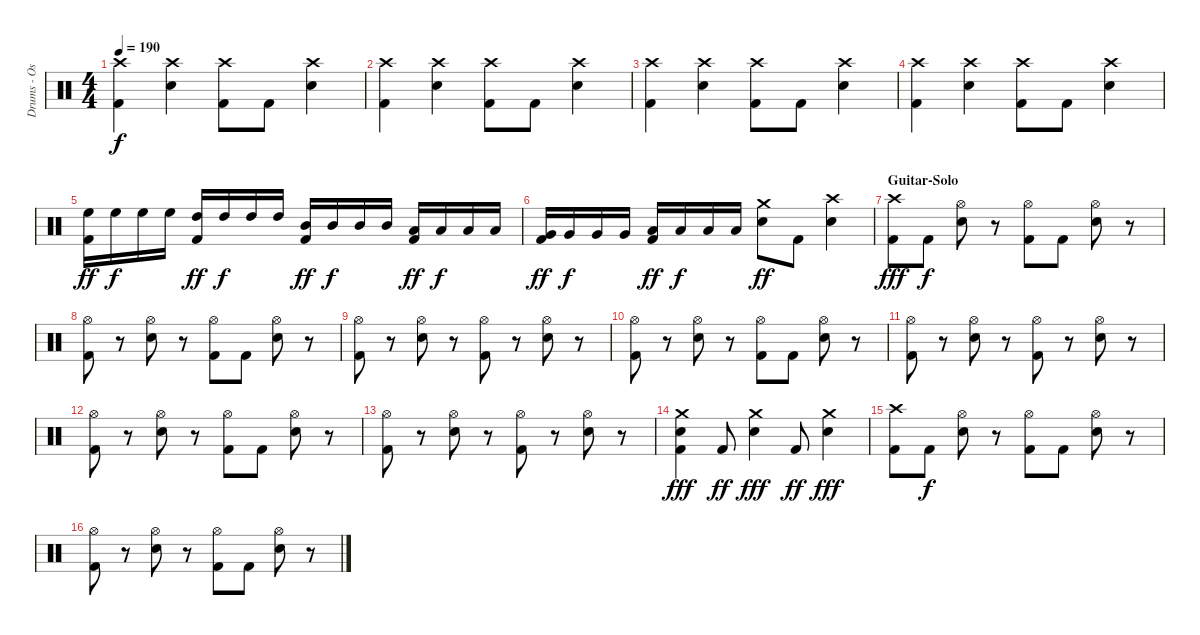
\track ("Drums - Oskar Karlsson" "Drums - Os") {instrument percussion}
\staff {score}
\articulation defaults
\ts (4 4)
\tempo 190
\clef neutral
\ks c
("Crash high (hit)" "Kick (hit) 2").4{dy f} ("Crash high (hit)" "Electric Snare (hit)").4 ("Crash high (hit)" "Kick (hit) 2").8 "Kick (hit) 2".8 ("Crash high (hit)" "Electric Snare (hit)").4 |
("Crash high (hit)" "Kick (hit) 2").4 ("Crash high (hit)" "Electric Snare (hit)").4 ("Crash high (hit)" "Kick (hit) 2").8 "Kick (hit) 2".8 ("Crash high (hit)" "Electric Snare (hit)").4 |
("Crash high (hit)" "Kick (hit) 2").4 ("Crash high (hit)" "Electric Snare (hit)").4 ("Crash high (hit)" "Kick (hit) 2").8 "Kick (hit) 2".8 ("Crash high (hit)" "Electric Snare (hit)").4 |
("Crash high (hit)" "Kick (hit) 2").4 ("Crash high (hit)" "Electric Snare (hit)").4 ("Crash high (hit)" "Kick (hit) 2").8 "Kick (hit) 2".8 ("Crash high (hit)" "Electric Snare (hit)").4 |
("Kick (hit) 2" "High Floor Tom (hit)").16{dy ff} "High Floor Tom (hit)".16{dy f} "High Floor Tom (hit)".16 "High Floor Tom (hit)".16 ("Kick (hit) 2" "High Tom (hit)").16{dy ff} "High Tom (hit)".16{dy f} "High Tom (hit)".16 "High Tom (hit)".16 ("Kick (hit) 2" "Mid Tom (hit)").16{dy ff} "Mid Tom (hit)".16{dy f} "Mid Tom (hit)".16 "Mid Tom (hit)".16 ("Kick (hit) 2" "Low Tom (hit)").16{dy ff} "Low Tom (hit)".16{dy f} "Low Tom (hit)".16 "Low Tom (hit)".16 |
("Kick (hit) 2" "Very Low Tom (hit)").16{dy ff} "Very Low Tom (hit)".16{dy f} "Very Low Tom (hit)".16 "Very Low Tom (hit)".16 ("Kick (hit) 2" "Low Floor Tom (hit)").16{dy ff} "Low Floor Tom (hit)".16{dy f} "Low Floor Tom (hit)".16 "Low Floor Tom (hit)".16 ("Crash medium (hit)" "Electric Snare (hit)").8{dy ff} "Kick (hit) 2".8 ("Crash high (hit)" "Electric Snare (hit)").4 |
\section ("" "Guitar-Solo")
("Crash high (hit)" "Kick (hit) 2").8{dy fff} "Kick (hit) 2".8{dy f} ("Hi-Hat (open)" "Electric Snare (hit)").8 r.8 ("Hi-Hat (open)" "Kick (hit) 2").8 "Kick (hit) 2".8 ("Hi-Hat (open)" "Electric Snare (hit)").8 r.8 |
("Hi-Hat (open)" "Kick (hit) 2").8 r.8 ("Hi-Hat (open)" "Electric Snare (hit)").8 r.8 ("Hi-Hat (open)" "Kick (hit) 2").8 "Kick (hit) 2".8 ("Hi-Hat (open)" "Electric Snare (hit)").8 r.8 |
("Hi-Hat (open)" "Kick (hit) 2").8 r.8 ("Hi-Hat (open)" "Electric Snare (hit)").8 r.8 ("Hi-Hat (open)" "Kick (hit) 2").8 r.8 ("Hi-Hat (open)" "Electric Snare (hit)").8 r.8 |
("Hi-Hat (open)" "Kick (hit) 2").8 r.8 ("Hi-Hat (open)" "Electric Snare (hit)").8 r.8 ("Hi-Hat (open)" "Kick (hit) 2").8 "Kick (hit) 2".8 ("Hi-Hat (open)" "Electric Snare (hit)").8 r.8 |
("Hi-Hat (open)" "Kick (hit) 2").8 r.8 ("Hi-Hat (open)" "Electric Snare (hit)").8 r.8 ("Hi-Hat (open)" "Kick (hit) 2").8 r.8 ("Hi-Hat (open)" "Electric Snare (hit)").8 r.8 |
("Hi-Hat (open)" "Kick (hit) 2").8 r.8 ("Hi-Hat (open)" "Electric Snare (hit)").8 r.8 ("Hi-Hat (open)" "Kick (hit) 2").8 "Kick (hit) 2".8 ("Hi-Hat (open)" "Electric Snare (hit)").8 r.8 |
("Hi-Hat (open)" "Kick (hit) 2").8 r.8 ("Hi-Hat (open)" "Electric Snare (hit)").8 r.8 ("Hi-Hat (open)" "Kick (hit) 2").8 r.8 ("Hi-Hat (open)" "Electric Snare (hit)").8 r.8 |
("Crash medium (hit)" "Electric Snare (hit)" "Kick (hit) 2").4{dy fff} "Kick (hit) 2".8{dy ff} ("Crash medium (hit)" "Electric Snare (hit)").4{dy fff} "Kick (hit) 2".8{dy ff} ("Crash medium (hit)" "Electric Snare (hit)").4{dy fff} |
("Crash high (hit)" "Kick (hit) 2").8 "Kick (hit) 2".8{dy f} ("Hi-Hat (open)" "Electric Snare (hit)").8 r.8 ("Hi-Hat (open)" "Kick (hit) 2").8 "Kick (hit) 2".8 ("Hi-Hat (open)" "Electric Snare (hit)").8 r.8 |
("Hi-Hat (open)" "Kick (hit) 2").8 r.8 ("Hi-Hat (open)" "Electric Snare (hit)").8 r.8 ("Hi-Hat (open)" "Kick (hit) 2").8 "Kick (hit) 2".8 ("Hi-Hat (open)" "Electric Snare (hit)").8 r.8
